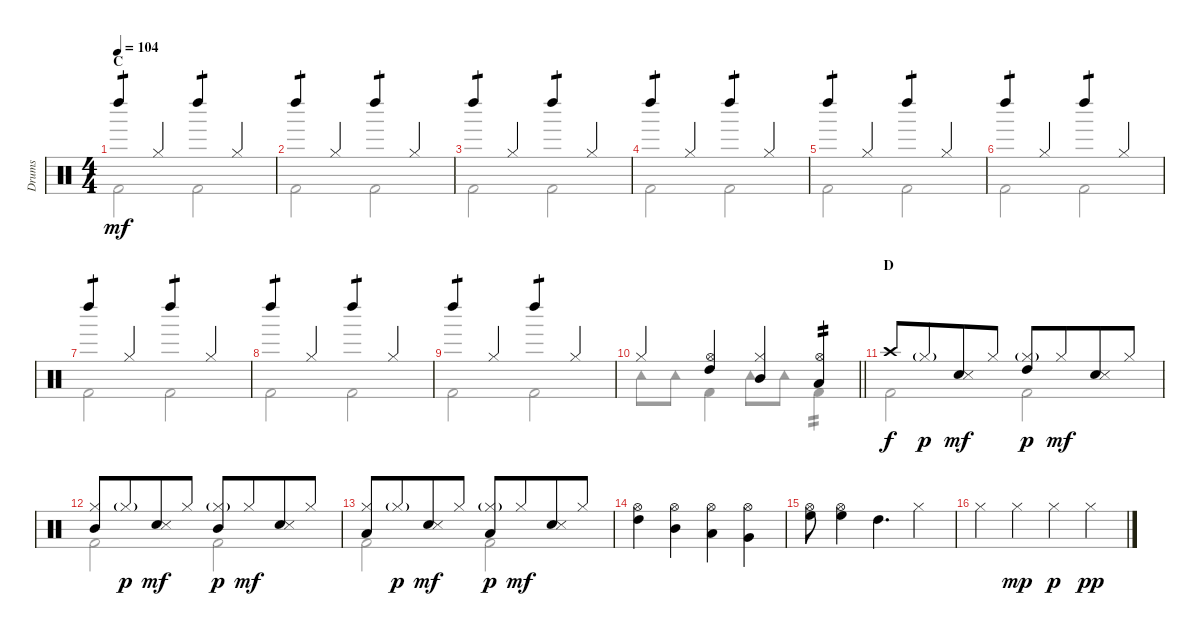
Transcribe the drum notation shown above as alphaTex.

\track ("Drums" "Drums") {instrument percussion}
\staff {score}
\articulation defaults
\voice
\ts (4 4)
\section ("" "C")
\tempo 104
\clef neutral
\ks c "Left Maraca (hit)".4{tp 1 dy mf} "Hi-Hat (closed)".4 "Left Maraca (hit)".4{tp 1} "Hi-Hat (closed)".4
|
"Left Maraca (hit)".4{tp 1} "Hi-Hat (closed)".4 "Left Maraca (hit)".4{tp 1} "Hi-Hat (closed)".4 |
"Left Maraca (hit)".4{tp 1} "Hi-Hat (closed)".4 "Left Maraca (hit)".4{tp 1} "Hi-Hat (closed)".4 |
"Left Maraca (hit)".4{tp 1} "Hi-Hat (closed)".4 "Left Maraca (hit)".4{tp 1} "Hi-Hat (closed)".4 |
"Left Maraca (hit)".4{tp 1} "Hi-Hat (closed)".4 "Left Maraca (hit)".4{tp 1} "Hi-Hat (closed)".4 |
"Left Maraca (hit)".4{tp 1} "Hi-Hat (closed)".4 "Left Maraca (hit)".4{tp 1} "Hi-Hat (closed)".4 |
"Left Maraca (hit)".4{tp 1} "Hi-Hat (closed)".4 "Left Maraca (hit)".4{tp 1} "Hi-Hat (closed)".4 |
"Left Maraca (hit)".4{tp 1} "Hi-Hat (closed)".4 "Left Maraca (hit)".4{tp 1} "Hi-Hat (closed)".4 |
"Left Maraca (hit)".4{tp 1} "Hi-Hat (closed)".4 "Left Maraca (hit)".4{tp 1} "Hi-Hat (closed)".4 |
\barLineRight lightlight "Hi-Hat (closed)".4
("Hi-Hat (open)" "High Tom (hit)").4 ("Hi-Hat (closed)" "Mid Tom (hit)").4 ("Hi-Hat (open)" "Low Tom (hit)").4{tp 2} |
\section ("" "D")
"Crash high (hit)".8{dy f} "Hi-Hat (closed)"{g}.8{dy p beam merge} ("Electric Snare (hit)" "Snare (side stick) 3").8{dy mf} "Hi-Hat (closed)".8 ("Hi-Hat (closed)"{g} "High Tom (hit)").8{dy p} "Hi-Hat (closed)".8{dy mf beam merge} ("Electric Snare (hit)" "Snare (side stick) 3").8 "Hi-Hat (closed)".8 |
("Hi-Hat (closed)" "Mid Tom (hit)").8 "Hi-Hat (closed)"{g}.8{dy p beam merge} ("Electric Snare (hit)" "Snare (side stick) 3").8{dy mf} "Hi-Hat (closed)".8 ("Hi-Hat (closed)"{g} "Mid Tom (hit)").8{dy p} "Hi-Hat (closed)".8{dy mf beam merge} ("Electric Snare (hit)" "Snare (side stick) 3").8 "Hi-Hat (closed)".8 |
("Hi-Hat (closed)" "Low Tom (hit)").8 "Hi-Hat (closed)"{g}.8{dy p beam merge} ("Electric Snare (hit)" "Snare (side stick) 3").8{dy mf} "Hi-Hat (closed)".8 ("Hi-Hat (closed)"{g} "Low Tom (hit)").8{dy p} "Hi-Hat (closed)".8{dy mf beam merge} ("Electric Snare (hit)" "Snare (side stick) 3").8 "Hi-Hat (closed)".8 |
("Hi-Hat (open)" "High Tom (hit)").4 ("Hi-Hat (open)" "Mid Tom (hit)").4 ("Hi-Hat (open)" "Low Tom (hit)").4 ("Hi-Hat (open)" "Very Low Tom (hit)").4 |
("Hi-Hat (open)" "High Floor Tom (hit)").8 ("Hi-Hat (open)" "High Floor Tom (hit)").4 "High Tom (hit)".4{d} "Hi-Hat (closed)".4 |
"Hi-Hat (closed)".4 "Hi-Hat (closed)".4{dy mp} "Hi-Hat (closed)".4{dy p} "Hi-Hat (closed)".4{dy pp}
\voice
\clef neutral
\ottava regular
\simile none
\ks c "Kick (hit) 2".2{dy mf} "Kick (hit) 2".2
|
"Kick (hit) 2".2 "Kick (hit) 2".2 |
"Kick (hit) 2".2 "Kick (hit) 2".2 |
"Kick (hit) 2".2 "Kick (hit) 2".2 |
"Kick (hit) 2".2 "Kick (hit) 2".2 |
"Kick (hit) 2".2 "Kick (hit) 2".2 |
"Kick (hit) 2".2 "Kick (hit) 2".2 |
"Kick (hit) 2".2 "Kick (hit) 2".2 |
"Kick (hit) 2".2 "Kick (hit) 2".2 |
\barLineRight lightlight "Tambourine (hit)".8 "Tambourine (hit)".8 "Kick (hit) 2".4 "Tambourine (hit)".8 "Tambourine (hit)".8 "Kick (hit) 2".4{tp 2}
|
"Kick (hit) 2".2 "Kick (hit) 2".2 |
"Kick (hit) 2".2 "Kick (hit) 2".2 |
"Kick (hit) 2".2 "Kick (hit) 2".2 |
|
|
